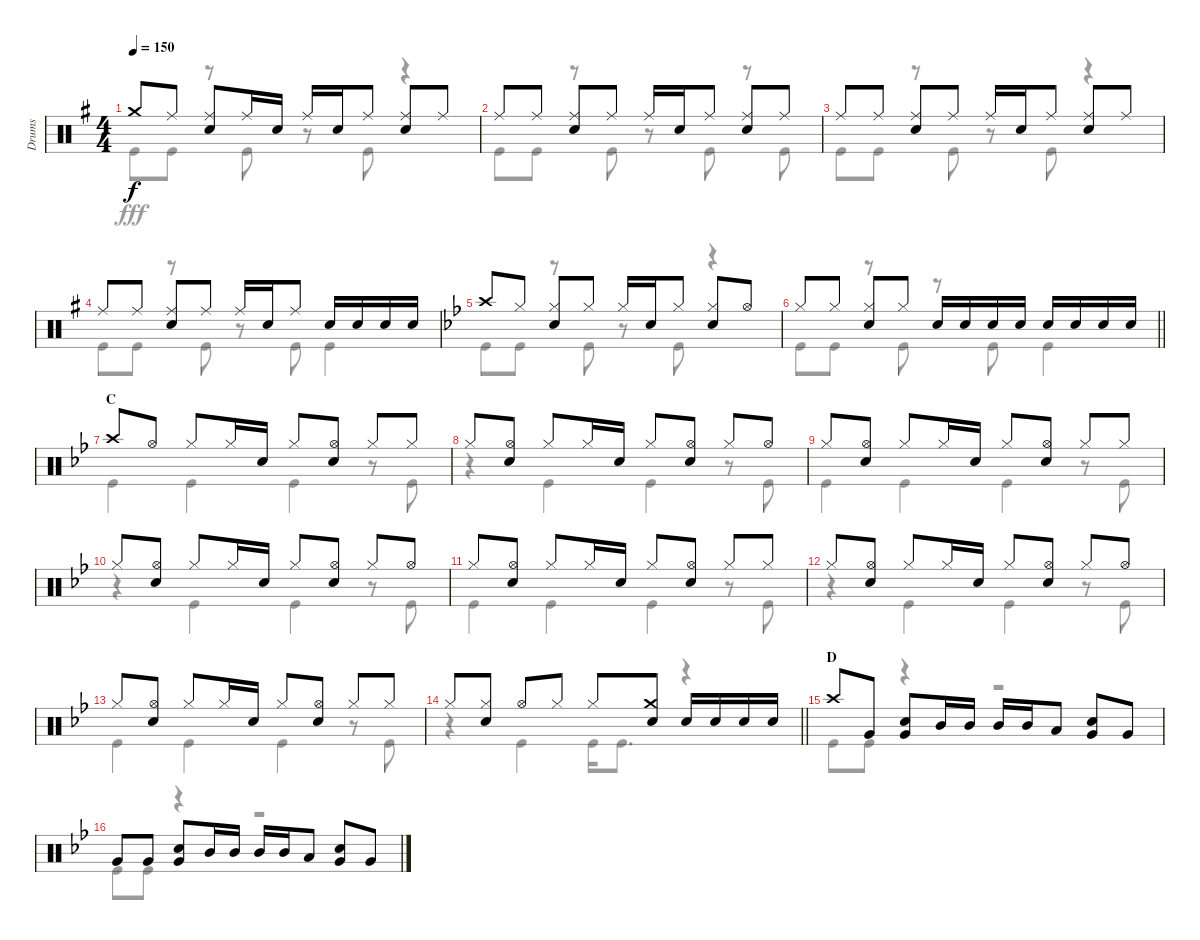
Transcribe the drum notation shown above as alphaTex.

\track ("Drums" "Drums") {instrument percussion}
\staff {score}
\articulation defaults
\voice
\ts (4 4)
\tempo 150
\clef neutral
\ks g "Crash medium (hit)".8{dy f} "Ride (middle)".8
("Ride (middle)" "Snare (hit) 2").8 "Ride (middle)".16 "Snare (hit) 2".16 "Ride (middle)".16 "Snare (hit) 2".16 "Ride (middle)".8 ("Ride (middle)" "Snare (hit) 2").8 "Ride (middle)".8 |
"Ride (middle)".8 "Ride (middle)".8 ("Ride (middle)" "Snare (hit) 2").8 "Ride (middle)".8 "Ride (middle)".16 "Snare (hit) 2".16 "Ride (middle)".8 ("Ride (middle)" "Snare (hit) 2").8 "Ride (middle)".8 |
"Ride (middle)".8 "Ride (middle)".8 ("Ride (middle)" "Snare (hit) 2").8 "Ride (middle)".8 "Ride (middle)".16 "Snare (hit) 2".16 "Ride (middle)".8 ("Ride (middle)" "Snare (hit) 2").8 "Ride (middle)".8 |
"Ride (middle)".8 "Ride (middle)".8 ("Ride (middle)" "Snare (hit) 2").8 "Ride (middle)".8 "Ride (middle)".16 "Snare (hit) 2".16 "Ride (middle)".8 "Snare (hit) 2".16 "Snare (hit) 2".16 "Snare (hit) 2".16 "Snare (hit) 2".16 |
\ks bb "Crash high (hit)".8 "Hi-Hat (closed)".8
("Hi-Hat (closed)" "Snare (hit) 2").8 "Hi-Hat (closed)".8 "Hi-Hat (closed)".16 "Snare (hit) 2".16 "Hi-Hat (closed)".8 ("Hi-Hat (closed)" "Snare (hit) 2").8 "Hi-Hat (open)".8 |
\barLineRight lightlight "Hi-Hat (closed)".8 "Hi-Hat (closed)".8
("Hi-Hat (closed)" "Snare (hit) 2").8 "Hi-Hat (closed)".8 "Snare (hit) 2".16 "Snare (hit) 2".16 "Snare (hit) 2".16 "Snare (hit) 2".16 "Snare (hit) 2".16 "Snare (hit) 2".16 "Snare (hit) 2".16 "Snare (hit) 2".16 |
\section ("" "C")
"Crash high (hit)".8 "Hi-Hat (open)".8 "Hi-Hat (closed)".8 "Hi-Hat (closed)".16 "Snare (hit) 2".16 "Hi-Hat (closed)".8 ("Hi-Hat (open)" "Snare (hit) 2").8 "Hi-Hat (closed)".8 "Hi-Hat (closed)".8 |
"Hi-Hat (closed)".8 ("Hi-Hat (open)" "Snare (hit) 2").8 "Hi-Hat (closed)".8 "Hi-Hat (closed)".16 "Snare (hit) 2".16 "Hi-Hat (closed)".8 ("Hi-Hat (open)" "Snare (hit) 2").8 "Hi-Hat (closed)".8 "Hi-Hat (open)".8 |
"Hi-Hat (closed)".8 ("Hi-Hat (open)" "Snare (hit) 2").8 "Hi-Hat (closed)".8 "Hi-Hat (closed)".16 "Snare (hit) 2".16 "Hi-Hat (closed)".8 ("Hi-Hat (open)" "Snare (hit) 2").8 "Hi-Hat (closed)".8 "Hi-Hat (closed)".8 |
"Hi-Hat (closed)".8 ("Hi-Hat (open)" "Snare (hit) 2").8 "Hi-Hat (closed)".8 "Hi-Hat (closed)".16 "Snare (hit) 2".16 "Hi-Hat (closed)".8 ("Hi-Hat (open)" "Snare (hit) 2").8 "Hi-Hat (closed)".8 "Hi-Hat (open)".8 |
"Hi-Hat (closed)".8 ("Hi-Hat (open)" "Snare (hit) 2").8 "Hi-Hat (closed)".8 "Hi-Hat (closed)".16 "Snare (hit) 2".16 "Hi-Hat (closed)".8 ("Hi-Hat (open)" "Snare (hit) 2").8 "Hi-Hat (closed)".8 "Hi-Hat (closed)".8 |
"Hi-Hat (closed)".8 ("Hi-Hat (open)" "Snare (hit) 2").8 "Hi-Hat (closed)".8 "Hi-Hat (closed)".16 "Snare (hit) 2".16 "Hi-Hat (closed)".8 ("Hi-Hat (open)" "Snare (hit) 2").8 "Hi-Hat (closed)".8 "Hi-Hat (open)".8 |
"Hi-Hat (closed)".8 ("Hi-Hat (open)" "Snare (hit) 2").8 "Hi-Hat (closed)".8 "Hi-Hat (closed)".16 "Snare (hit) 2".16 "Hi-Hat (closed)".8 ("Hi-Hat (open)" "Snare (hit) 2").8 "Hi-Hat (closed)".8 "Hi-Hat (closed)".8 |
\barLineRight lightlight "Hi-Hat (closed)".8
("Hi-Hat (closed)" "Snare (hit) 2").8 "Hi-Hat (open)".8 "Hi-Hat (closed)".8 "Hi-Hat (closed)".8 ("Crash medium (hit)" "Snare (hit) 2").8 "Snare (hit) 2".16 "Snare (hit) 2".16 "Snare (hit) 2".16 "Snare (hit) 2".16 |
\section ("" "D")
"Crash high (hit)".8 "Very Low Tom (hit)".8 ("Snare (hit) 2" "Very Low Tom (hit)").8 "Mid Tom (hit)".16 "Mid Tom (hit)".16 "Mid Tom (hit)".16 "Mid Tom (hit)".16 "Low Tom (hit)".8 ("Snare (hit) 2" "Very Low Tom (hit)").8 "Very Low Tom (hit)".8 |
"Very Low Tom (hit)".8 "Very Low Tom (hit)".8 ("Snare (hit) 2" "Very Low Tom (hit)").8 "Mid Tom (hit)".16 "Mid Tom (hit)".16 "Mid Tom (hit)".16 "Mid Tom (hit)".16 "Low Tom (hit)".8 ("Snare (hit) 2" "Very Low Tom (hit)").8 "Very Low Tom (hit)".8
\voice
\clef neutral
\ottava regular
\simile none
\ks g "Kick (hit)".8{dy fff} "Kick (hit)".8
r.8 "Kick (hit)".8 r.8 "Kick (hit)".8 r.4 |
"Kick (hit)".8 "Kick (hit)".8 r.8 "Kick (hit)".8 r.8 "Kick (hit)".8 r.8 "Kick (hit)".8 |
"Kick (hit)".8 "Kick (hit)".8 r.8 "Kick (hit)".8 r.8 "Kick (hit)".8 r.4 |
"Kick (hit)".8 "Kick (hit)".8 r.8 "Kick (hit)".8 r.8 "Kick (hit)".8 "Kick (hit)".4 |
\ks bb "Kick (hit)".8 "Kick (hit)".8
r.8 "Kick (hit)".8 r.8 "Kick (hit)".8 r.4 |
\barLineRight lightlight "Kick (hit)".8 "Kick (hit)".8
r.8 "Kick (hit)".8 r.8 "Kick (hit)".8 "Kick (hit)".4 |
"Kick (hit)".4 "Kick (hit)".4 "Kick (hit)".4 r.8 "Kick (hit)".8 |
r.4 "Kick (hit)".4 "Kick (hit)".4 r.8 "Kick (hit)".8 |
"Kick (hit)".4 "Kick (hit)".4 "Kick (hit)".4 r.8 "Kick (hit)".8 |
r.4 "Kick (hit)".4 "Kick (hit)".4 r.8 "Kick (hit)".8 |
"Kick (hit)".4 "Kick (hit)".4 "Kick (hit)".4 r.8 "Kick (hit)".8 |
r.4 "Kick (hit)".4 "Kick (hit)".4 r.8 "Kick (hit)".8 |
"Kick (hit)".4 "Kick (hit)".4 "Kick (hit)".4 r.8 "Kick (hit)".8 |
\barLineRight lightlight
r.4 "Kick (hit)".4 "Kick (hit)".16 "Kick (hit)".8{d} r.4 |
"Kick (hit)".8 "Kick (hit)".8 r.4 r.2 |
"Kick (hit)".8 "Kick (hit)".8 r.4 r.2
